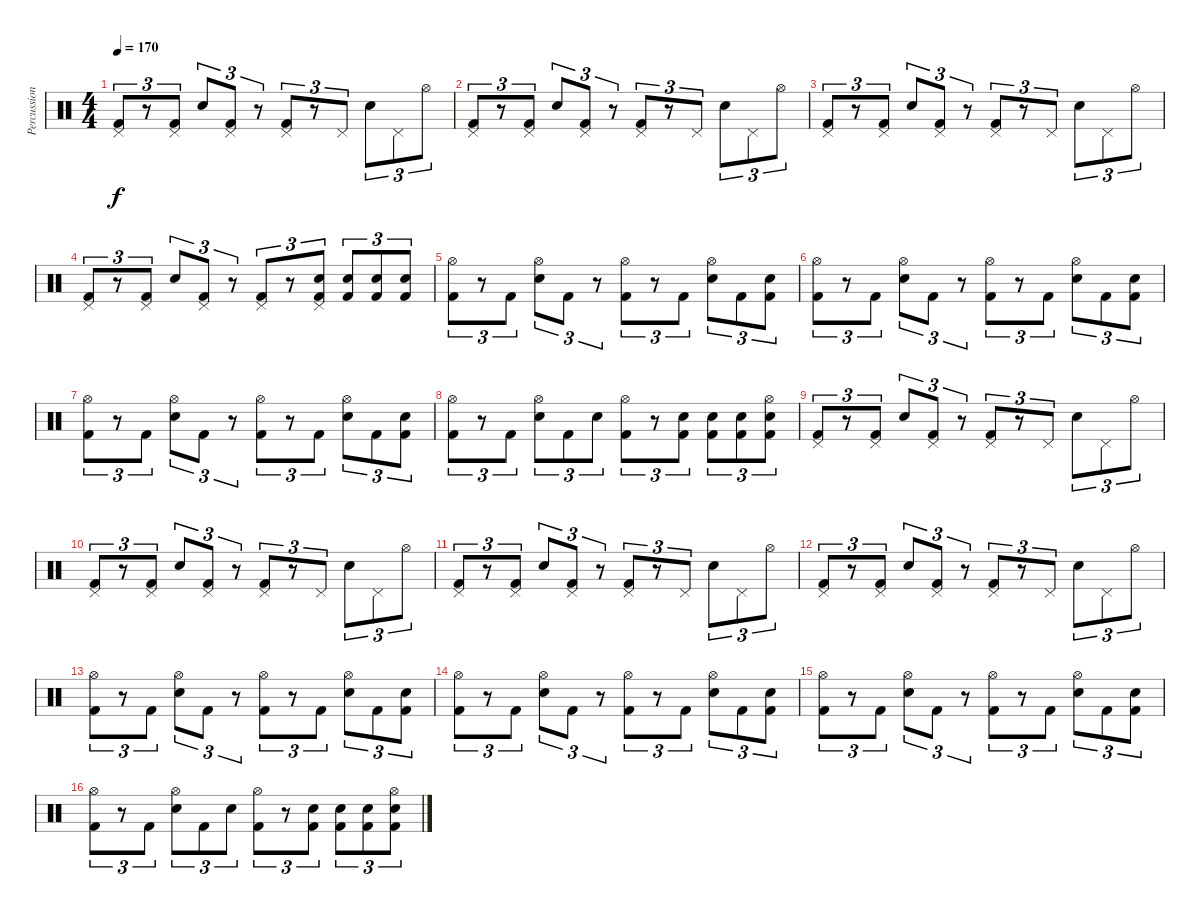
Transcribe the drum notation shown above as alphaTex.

\track ("Percussioni" "Percussion") {instrument percussion}
\staff {score}
\articulation defaults
\ts (4 4)
\tempo 170
\clef neutral
\ks c
("Pedal Hi-Hat (hit)" "Kick (hit) 2").8{tu (3 2) dy f} r.8{tu (3 2)} ("Pedal Hi-Hat (hit)" "Kick (hit) 2").8{tu (3 2)} "Snare (hit) 2".8{tu (3 2)} ("Pedal Hi-Hat (hit)" "Kick (hit) 2").8{tu (3 2)} r.8{tu (3 2)} ("Pedal Hi-Hat (hit)" "Kick (hit) 2").8{tu (3 2)} r.8{tu (3 2)} "Pedal Hi-Hat (hit)".8{tu (3 2)} "Snare (hit) 2".8{tu (3 2)} "Pedal Hi-Hat (hit)".8{tu (3 2)} "Hi-Hat (open)".8{tu (3 2)} |
("Pedal Hi-Hat (hit)" "Kick (hit) 2").8{tu (3 2)} r.8{tu (3 2)} ("Pedal Hi-Hat (hit)" "Kick (hit) 2").8{tu (3 2)} "Snare (hit) 2".8{tu (3 2)} ("Pedal Hi-Hat (hit)" "Kick (hit) 2").8{tu (3 2)} r.8{tu (3 2)} ("Pedal Hi-Hat (hit)" "Kick (hit) 2").8{tu (3 2)} r.8{tu (3 2)} "Pedal Hi-Hat (hit)".8{tu (3 2)} "Snare (hit) 2".8{tu (3 2)} "Pedal Hi-Hat (hit)".8{tu (3 2)} "Hi-Hat (open)".8{tu (3 2)} |
("Pedal Hi-Hat (hit)" "Kick (hit) 2").8{tu (3 2)} r.8{tu (3 2)} ("Pedal Hi-Hat (hit)" "Kick (hit) 2").8{tu (3 2)} "Snare (hit) 2".8{tu (3 2)} ("Pedal Hi-Hat (hit)" "Kick (hit) 2").8{tu (3 2)} r.8{tu (3 2)} ("Pedal Hi-Hat (hit)" "Kick (hit) 2").8{tu (3 2)} r.8{tu (3 2)} "Pedal Hi-Hat (hit)".8{tu (3 2)} "Snare (hit) 2".8{tu (3 2)} "Pedal Hi-Hat (hit)".8{tu (3 2)} "Hi-Hat (open)".8{tu (3 2)} |
("Pedal Hi-Hat (hit)" "Kick (hit) 2").8{tu (3 2)} r.8{tu (3 2)} ("Pedal Hi-Hat (hit)" "Kick (hit) 2").8{tu (3 2)} "Snare (hit) 2".8{tu (3 2)} ("Pedal Hi-Hat (hit)" "Kick (hit) 2").8{tu (3 2)} r.8{tu (3 2)} ("Pedal Hi-Hat (hit)" "Kick (hit) 2").8{tu (3 2)} r.8{tu (3 2)} ("Pedal Hi-Hat (hit)" "Snare (hit) 2" "Kick (hit) 2").8{tu (3 2)} ("Snare (hit) 2" "Kick (hit) 2").8{tu (3 2)} ("Snare (hit) 2" "Kick (hit) 2").8{tu (3 2)} ("Snare (hit) 2" "Kick (hit) 2").8{tu (3 2)} |
("Hi-Hat (open)" "Kick (hit) 2").8{tu (3 2)} r.8{tu (3 2)} "Kick (hit) 2".8{tu (3 2)} ("Hi-Hat (open)" "Snare (hit) 2").8{tu (3 2)} "Kick (hit) 2".8{tu (3 2)} r.8{tu (3 2)} ("Hi-Hat (open)" "Kick (hit) 2").8{tu (3 2)} r.8{tu (3 2)} "Kick (hit) 2".8{tu (3 2)} ("Hi-Hat (open)" "Snare (hit) 2").8{tu (3 2)} "Kick (hit) 2".8{tu (3 2)} ("Snare (hit) 2" "Kick (hit) 2").8{tu (3 2)} |
("Hi-Hat (open)" "Kick (hit) 2").8{tu (3 2)} r.8{tu (3 2)} "Kick (hit) 2".8{tu (3 2)} ("Hi-Hat (open)" "Snare (hit) 2").8{tu (3 2)} "Kick (hit) 2".8{tu (3 2)} r.8{tu (3 2)} ("Hi-Hat (open)" "Kick (hit) 2").8{tu (3 2)} r.8{tu (3 2)} "Kick (hit) 2".8{tu (3 2)} ("Hi-Hat (open)" "Snare (hit) 2").8{tu (3 2)} "Kick (hit) 2".8{tu (3 2)} ("Snare (hit) 2" "Kick (hit) 2").8{tu (3 2)} |
("Hi-Hat (open)" "Kick (hit) 2").8{tu (3 2)} r.8{tu (3 2)} "Kick (hit) 2".8{tu (3 2)} ("Hi-Hat (open)" "Snare (hit) 2").8{tu (3 2)} "Kick (hit) 2".8{tu (3 2)} r.8{tu (3 2)} ("Hi-Hat (open)" "Kick (hit) 2").8{tu (3 2)} r.8{tu (3 2)} "Kick (hit) 2".8{tu (3 2)} ("Hi-Hat (open)" "Snare (hit) 2").8{tu (3 2)} "Kick (hit) 2".8{tu (3 2)} ("Snare (hit) 2" "Kick (hit) 2").8{tu (3 2)} |
("Hi-Hat (open)" "Kick (hit) 2").8{tu (3 2)} r.8{tu (3 2)} "Kick (hit) 2".8{tu (3 2)} ("Hi-Hat (open)" "Snare (hit) 2").8{tu (3 2)} "Kick (hit) 2".8{tu (3 2)} "Snare (hit) 2".8{tu (3 2)} ("Hi-Hat (open)" "Kick (hit) 2").8{tu (3 2)} r.8{tu (3 2)} ("Snare (hit) 2" "Kick (hit) 2").8{tu (3 2)} ("Snare (hit) 2" "Kick (hit) 2").8{tu (3 2)} ("Snare (hit) 2" "Kick (hit) 2").8{tu (3 2)} ("Hi-Hat (open)" "Snare (hit) 2" "Kick (hit) 2").8{tu (3 2)} |
("Pedal Hi-Hat (hit)" "Kick (hit) 2").8{tu (3 2)} r.8{tu (3 2)} ("Pedal Hi-Hat (hit)" "Kick (hit) 2").8{tu (3 2)} "Snare (hit) 2".8{tu (3 2)} ("Pedal Hi-Hat (hit)" "Kick (hit) 2").8{tu (3 2)} r.8{tu (3 2)} ("Pedal Hi-Hat (hit)" "Kick (hit) 2").8{tu (3 2)} r.8{tu (3 2)} "Pedal Hi-Hat (hit)".8{tu (3 2)} "Snare (hit) 2".8{tu (3 2)} "Pedal Hi-Hat (hit)".8{tu (3 2)} "Hi-Hat (open)".8{tu (3 2)} |
("Pedal Hi-Hat (hit)" "Kick (hit) 2").8{tu (3 2)} r.8{tu (3 2)} ("Pedal Hi-Hat (hit)" "Kick (hit) 2").8{tu (3 2)} "Snare (hit) 2".8{tu (3 2)} ("Pedal Hi-Hat (hit)" "Kick (hit) 2").8{tu (3 2)} r.8{tu (3 2)} ("Pedal Hi-Hat (hit)" "Kick (hit) 2").8{tu (3 2)} r.8{tu (3 2)} "Pedal Hi-Hat (hit)".8{tu (3 2)} "Snare (hit) 2".8{tu (3 2)} "Pedal Hi-Hat (hit)".8{tu (3 2)} "Hi-Hat (open)".8{tu (3 2)} |
("Pedal Hi-Hat (hit)" "Kick (hit) 2").8{tu (3 2)} r.8{tu (3 2)} ("Pedal Hi-Hat (hit)" "Kick (hit) 2").8{tu (3 2)} "Snare (hit) 2".8{tu (3 2)} ("Pedal Hi-Hat (hit)" "Kick (hit) 2").8{tu (3 2)} r.8{tu (3 2)} ("Pedal Hi-Hat (hit)" "Kick (hit) 2").8{tu (3 2)} r.8{tu (3 2)} "Pedal Hi-Hat (hit)".8{tu (3 2)} "Snare (hit) 2".8{tu (3 2)} "Pedal Hi-Hat (hit)".8{tu (3 2)} "Hi-Hat (open)".8{tu (3 2)} |
("Pedal Hi-Hat (hit)" "Kick (hit) 2").8{tu (3 2)} r.8{tu (3 2)} ("Pedal Hi-Hat (hit)" "Kick (hit) 2").8{tu (3 2)} "Snare (hit) 2".8{tu (3 2)} ("Pedal Hi-Hat (hit)" "Kick (hit) 2").8{tu (3 2)} r.8{tu (3 2)} ("Pedal Hi-Hat (hit)" "Kick (hit) 2").8{tu (3 2)} r.8{tu (3 2)} "Pedal Hi-Hat (hit)".8{tu (3 2)} "Snare (hit) 2".8{tu (3 2)} "Pedal Hi-Hat (hit)".8{tu (3 2)} "Hi-Hat (open)".8{tu (3 2)} |
("Hi-Hat (open)" "Kick (hit) 2").8{tu (3 2)} r.8{tu (3 2)} "Kick (hit) 2".8{tu (3 2)} ("Hi-Hat (open)" "Snare (hit) 2").8{tu (3 2)} "Kick (hit) 2".8{tu (3 2)} r.8{tu (3 2)} ("Hi-Hat (open)" "Kick (hit) 2").8{tu (3 2)} r.8{tu (3 2)} "Kick (hit) 2".8{tu (3 2)} ("Hi-Hat (open)" "Snare (hit) 2").8{tu (3 2)} "Kick (hit) 2".8{tu (3 2)} ("Snare (hit) 2" "Kick (hit) 2").8{tu (3 2)} |
("Hi-Hat (open)" "Kick (hit) 2").8{tu (3 2)} r.8{tu (3 2)} "Kick (hit) 2".8{tu (3 2)} ("Hi-Hat (open)" "Snare (hit) 2").8{tu (3 2)} "Kick (hit) 2".8{tu (3 2)} r.8{tu (3 2)} ("Hi-Hat (open)" "Kick (hit) 2").8{tu (3 2)} r.8{tu (3 2)} "Kick (hit) 2".8{tu (3 2)} ("Hi-Hat (open)" "Snare (hit) 2").8{tu (3 2)} "Kick (hit) 2".8{tu (3 2)} ("Snare (hit) 2" "Kick (hit) 2").8{tu (3 2)} |
("Hi-Hat (open)" "Kick (hit) 2").8{tu (3 2)} r.8{tu (3 2)} "Kick (hit) 2".8{tu (3 2)} ("Hi-Hat (open)" "Snare (hit) 2").8{tu (3 2)} "Kick (hit) 2".8{tu (3 2)} r.8{tu (3 2)} ("Hi-Hat (open)" "Kick (hit) 2").8{tu (3 2)} r.8{tu (3 2)} "Kick (hit) 2".8{tu (3 2)} ("Hi-Hat (open)" "Snare (hit) 2").8{tu (3 2)} "Kick (hit) 2".8{tu (3 2)} ("Snare (hit) 2" "Kick (hit) 2").8{tu (3 2)} |
("Hi-Hat (open)" "Kick (hit) 2").8{tu (3 2)} r.8{tu (3 2)} "Kick (hit) 2".8{tu (3 2)} ("Hi-Hat (open)" "Snare (hit) 2").8{tu (3 2)} "Kick (hit) 2".8{tu (3 2)} "Snare (hit) 2".8{tu (3 2)} ("Hi-Hat (open)" "Kick (hit) 2").8{tu (3 2)} r.8{tu (3 2)} ("Snare (hit) 2" "Kick (hit) 2").8{tu (3 2)} ("Snare (hit) 2" "Kick (hit) 2").8{tu (3 2)} ("Snare (hit) 2" "Kick (hit) 2").8{tu (3 2)} ("Hi-Hat (open)" "Snare (hit) 2" "Kick (hit) 2").8{tu (3 2)}
